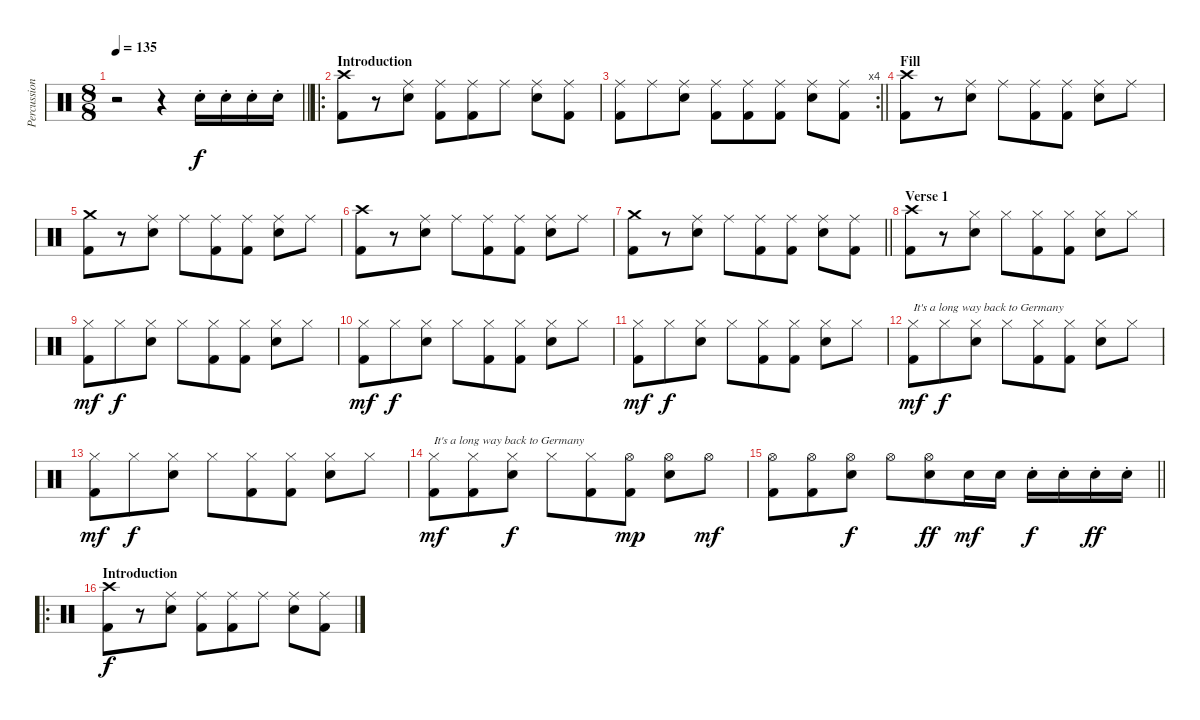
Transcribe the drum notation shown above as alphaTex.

\track ("Percussion" "Percussion") {instrument percussion}
\staff {score}
\articulation defaults
\ts (8 8)
\tempo 135
\clef neutral
\barLineRight lightlight
\ks c
r.2{dy f} r.4 "Snare (hit) 2"{st}.16 "Snare (hit) 2"{st}.16 "Snare (hit) 2"{st}.16 "Snare (hit) 2"{st}.16 |
\ro
\section ("" "Introduction")
("Crash high (hit)" "Kick (hit) 2").8 r.8 ("Ride (middle)" "Snare (hit) 2").8 ("Ride (middle)" "Kick (hit) 2").8 ("Ride (middle)" "Kick (hit) 2").8 "Ride (middle)".8 ("Ride (middle)" "Snare (hit) 2").8 ("Ride (middle)" "Kick (hit) 2").8 |
\rc 4
\barLineRight lightlight
("Ride (middle)" "Kick (hit) 2").8 "Ride (middle)".8 ("Ride (middle)" "Snare (hit) 2").8 ("Ride (middle)" "Kick (hit) 2").8 ("Ride (middle)" "Kick (hit) 2").8 ("Ride (middle)" "Kick (hit) 2").8 ("Ride (middle)" "Snare (hit) 2").8 ("Ride (middle)" "Kick (hit) 2").8 |
\section ("" "Fill")
("Crash high (hit)" "Kick (hit) 2").8 r.8 ("Ride (middle)" "Snare (hit) 2").8 "Ride (middle)".8 ("Ride (middle)" "Kick (hit) 2").8 ("Ride (middle)" "Kick (hit) 2").8 ("Ride (middle)" "Snare (hit) 2").8 "Ride (middle)".8 |
("Crash medium (hit)" "Kick (hit) 2").8 r.8 ("Ride (middle)" "Snare (hit) 2").8 "Ride (middle)".8 ("Ride (middle)" "Kick (hit) 2").8 ("Ride (middle)" "Kick (hit) 2").8 ("Ride (middle)" "Snare (hit) 2").8 "Ride (middle)".8 |
("Crash high (hit)" "Kick (hit) 2").8 r.8 ("Ride (middle)" "Snare (hit) 2").8 "Ride (middle)".8 ("Ride (middle)" "Kick (hit) 2").8 ("Ride (middle)" "Kick (hit) 2").8 ("Ride (middle)" "Snare (hit) 2").8 "Ride (middle)".8 |
\barLineRight lightlight
("Crash medium (hit)" "Kick (hit) 2").8 r.8 ("Ride (middle)" "Snare (hit) 2").8 "Ride (middle)".8 ("Ride (middle)" "Kick (hit) 2").8 ("Ride (middle)" "Kick (hit) 2").8 ("Ride (middle)" "Snare (hit) 2").8 ("Ride (middle)" "Kick (hit) 2").8 |
\section ("" "Verse 1")
("Crash high (hit)" "Kick (hit) 2").8 r.8 ("Hi-Hat (closed)" "Snare (hit) 2").8 "Hi-Hat (closed)".8 ("Hi-Hat (closed)" "Kick (hit) 2").8 ("Hi-Hat (closed)" "Kick (hit) 2").8 ("Hi-Hat (closed)" "Snare (hit) 2").8 "Hi-Hat (closed)".8 |
("Hi-Hat (closed)" "Kick (hit) 2").8{dy mf} "Hi-Hat (closed)".8{dy f} ("Hi-Hat (closed)" "Snare (hit) 2").8 "Hi-Hat (closed)".8 ("Hi-Hat (closed)" "Kick (hit) 2").8 ("Hi-Hat (closed)" "Kick (hit) 2").8 ("Hi-Hat (closed)" "Snare (hit) 2").8 "Hi-Hat (closed)".8 |
("Hi-Hat (closed)" "Kick (hit) 2").8{dy mf} "Hi-Hat (closed)".8{dy f} ("Hi-Hat (closed)" "Snare (hit) 2").8 "Hi-Hat (closed)".8 ("Hi-Hat (closed)" "Kick (hit) 2").8 ("Hi-Hat (closed)" "Kick (hit) 2").8 ("Hi-Hat (closed)" "Snare (hit) 2").8 "Hi-Hat (closed)".8 |
("Hi-Hat (closed)" "Kick (hit) 2").8{dy mf} "Hi-Hat (closed)".8{dy f} ("Hi-Hat (closed)" "Snare (hit) 2").8 "Hi-Hat (closed)".8 ("Hi-Hat (closed)" "Kick (hit) 2").8 ("Hi-Hat (closed)" "Kick (hit) 2").8 ("Hi-Hat (closed)" "Snare (hit) 2").8 "Hi-Hat (closed)".8 |
("Hi-Hat (closed)" "Kick (hit) 2").8{txt "It's a long way back to Germany" dy mf} "Hi-Hat (closed)".8{dy f} ("Hi-Hat (closed)" "Snare (hit) 2").8 "Hi-Hat (closed)".8 ("Hi-Hat (closed)" "Kick (hit) 2").8 ("Hi-Hat (closed)" "Kick (hit) 2").8 ("Hi-Hat (closed)" "Snare (hit) 2").8 "Hi-Hat (closed)".8 |
("Hi-Hat (closed)" "Kick (hit) 2").8{dy mf} "Hi-Hat (closed)".8{dy f} ("Hi-Hat (closed)" "Snare (hit) 2").8 "Hi-Hat (closed)".8 ("Hi-Hat (closed)" "Kick (hit) 2").8 ("Hi-Hat (closed)" "Kick (hit) 2").8 ("Hi-Hat (closed)" "Snare (hit) 2").8 "Hi-Hat (closed)".8 |
("Hi-Hat (closed)" "Kick (hit) 2").8{txt "It's a long way back to Germany" dy mf} ("Hi-Hat (closed)" "Kick (hit) 2").8 ("Hi-Hat (closed)" "Snare (hit) 2").8{dy f} "Hi-Hat (closed)".8 ("Hi-Hat (closed)" "Kick (hit) 2").8 ("Hi-Hat (open)" "Kick (hit) 2").8{dy mp} ("Hi-Hat (open)" "Snare (hit) 2").8 "Hi-Hat (open)".8{dy mf} |
\barLineRight lightlight
("Hi-Hat (open)" "Kick (hit) 2").8 ("Hi-Hat (open)" "Kick (hit) 2").8 ("Hi-Hat (open)" "Snare (hit) 2").8{dy f} "Hi-Hat (open)".8 ("Hi-Hat (open)" "Snare (hit) 2").8{dy ff} "Snare (hit) 2".16{dy mf} "Snare (hit) 2".16 "Snare (hit) 2"{st}.16{dy f} "Snare (hit) 2"{st}.16 "Snare (hit) 2"{st}.16{dy ff} "Snare (hit) 2"{st}.16 |
\ro
\section ("" "Introduction")
("Crash high (hit)" "Kick (hit) 2").8{dy f} r.8 ("Ride (middle)" "Snare (hit) 2").8 ("Ride (middle)" "Kick (hit) 2").8 ("Ride (middle)" "Kick (hit) 2").8 "Ride (middle)".8 ("Ride (middle)" "Snare (hit) 2").8 ("Ride (middle)" "Kick (hit) 2").8
